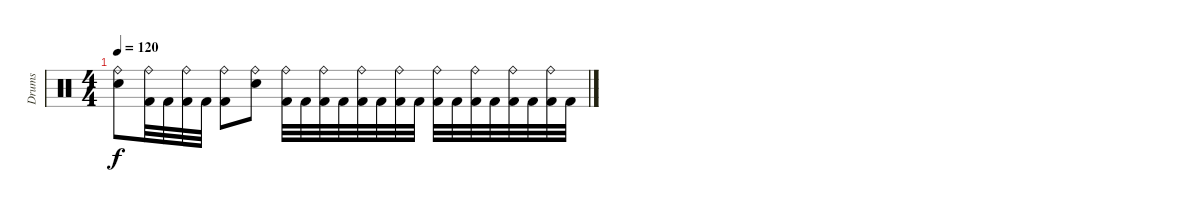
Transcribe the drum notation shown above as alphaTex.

\track ("Drums" "Drums") {instrument percussion}
\staff {score}
\articulation defaults
\ts (4 4)
\tempo 120
\clef neutral
\ks c
("Ride (bell)" "Electric Snare (hit)").8{dy f} ("Ride (bell)" "Kick (hit) 2").32 "Kick (hit) 2".32 ("Ride (bell)" "Kick (hit) 2").32 "Kick (hit) 2".32 ("Ride (bell)" "Kick (hit) 2").8 ("Ride (bell)" "Electric Snare (hit)").8 ("Ride (bell)" "Kick (hit) 2").32 "Kick (hit) 2".32 ("Ride (bell)" "Kick (hit) 2").32 "Kick (hit) 2".32 ("Ride (bell)" "Kick (hit) 2").32 "Kick (hit) 2".32 ("Ride (bell)" "Kick (hit) 2").32 "Kick (hit) 2".32 ("Ride (bell)" "Kick (hit) 2").32 "Kick (hit) 2".32 ("Ride (bell)" "Kick (hit) 2").32 "Kick (hit) 2".32 ("Ride (bell)" "Kick (hit) 2").32 "Kick (hit) 2".32 ("Ride (bell)" "Kick (hit) 2").32 "Kick (hit) 2".32
